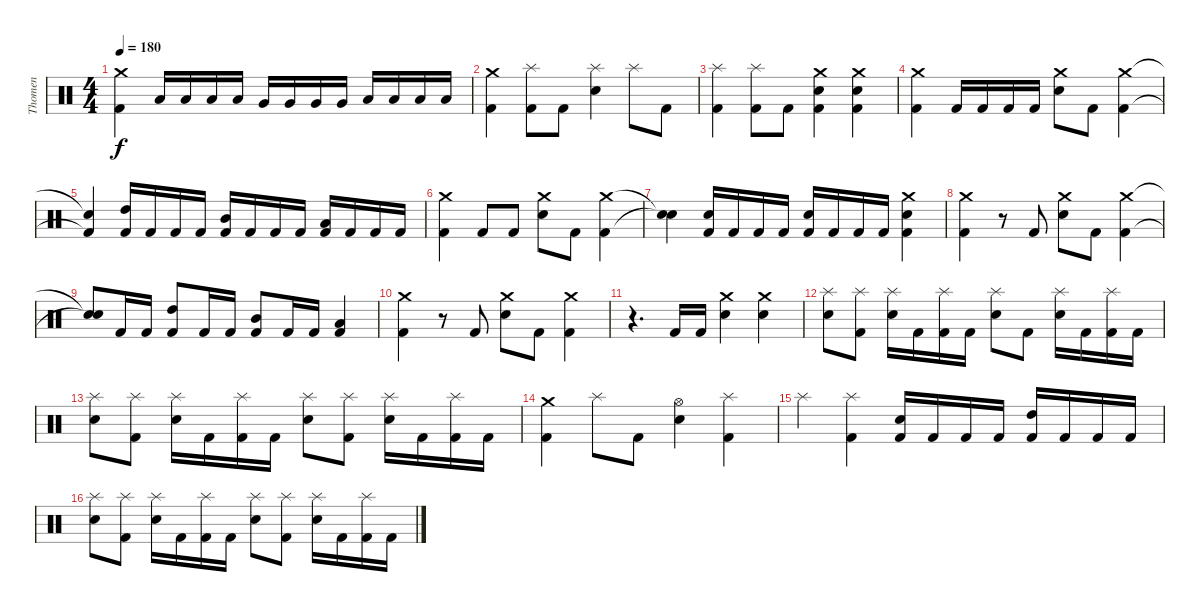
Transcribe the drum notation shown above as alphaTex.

\track ("Thomen" "Thomen") {instrument percussion}
\staff {score}
\articulation defaults
\ts (4 4)
\tempo 180
\clef neutral
\ks c
("Crash medium (hit)" "Kick (hit) 2").4{dy f} "Low Tom (hit)".16 "Low Tom (hit)".16 "Low Tom (hit)".16 "Low Tom (hit)".16 "Very Low Tom (hit)".16 "Very Low Tom (hit)".16 "Very Low Tom (hit)".16 "Very Low Tom (hit)".16 "Low Floor Tom (hit)".16 "Low Floor Tom (hit)".16 "Low Floor Tom (hit)".16 "Low Floor Tom (hit)".16 |
("Crash medium (hit)" "Kick (hit) 2").4 ("Splash (hit)" "Kick (hit) 2").8 "Kick (hit) 2".8 ("Electric Snare (hit)" "Splash (hit)").4 "Splash (hit)".8 "Kick (hit) 2".8 |
("Splash (hit)" "Kick (hit) 2").4 ("Splash (hit)" "Kick (hit) 2").8 "Kick (hit) 2".8 ("Crash medium (hit)" "Electric Snare (hit)" "Kick (hit) 2").4 ("Crash medium (hit)" "Electric Snare (hit)" "Kick (hit) 2").4 |
("Kick (hit) 2" "Crash medium (hit)").4 "Kick (hit) 2".16 "Kick (hit) 2".16 "Kick (hit) 2".16 "Kick (hit) 2".16 ("Crash medium (hit)" "Electric Snare (hit)").8 "Kick (hit) 2".8 ("Crash medium (hit)" "Kick (hit) 2").4 |
("Snare (hit)"{t} "Kick (hit) 2"{t}).4 ("High Tom (hit)" "Kick (hit) 2").16 "Kick (hit) 2".16 "Kick (hit) 2".16 "Kick (hit) 2".16 ("Mid Tom (hit)" "Kick (hit) 2").16 "Kick (hit) 2".16 "Kick (hit) 2".16 "Kick (hit) 2".16 ("Low Tom (hit)" "Kick (hit) 2").16 "Kick (hit) 2".16 "Kick (hit) 2".16 "Kick (hit) 2".16 |
("Kick (hit) 2" "Crash medium (hit)").4 "Kick (hit) 2".8 "Kick (hit) 2".8 ("Crash medium (hit)" "Electric Snare (hit)").8 "Kick (hit) 2".8 ("Crash medium (hit)" "Kick (hit) 2").4 |
("Snare (hit)"{t} "Snare (hit)"{t}).4 ("Kick (hit) 2" "Electric Snare (hit)").16 "Kick (hit) 2".16 "Kick (hit) 2".16 "Kick (hit) 2".16 ("Kick (hit) 2" "Electric Snare (hit)").16 "Kick (hit) 2".16 "Kick (hit) 2".16 "Kick (hit) 2".16 ("Crash medium (hit)" "Kick (hit) 2" "Electric Snare (hit)").4 |
("Kick (hit) 2" "Crash medium (hit)").4 r.8 "Kick (hit) 2".8 ("Crash medium (hit)" "Electric Snare (hit)").8 "Kick (hit) 2".8 ("Crash medium (hit)" "Kick (hit) 2").4 |
("Snare (hit)"{t} "Snare (hit)"{t}).8 "Kick (hit) 2".16 "Kick (hit) 2".16 ("Kick (hit) 2" "High Tom (hit)").8 "Kick (hit) 2".16 "Kick (hit) 2".16 ("Kick (hit) 2" "Mid Tom (hit)").8 "Kick (hit) 2".16 "Kick (hit) 2".16 ("Kick (hit) 2" "Low Tom (hit)").4 |
("Kick (hit) 2" "Crash medium (hit)").4 r.8 "Kick (hit) 2".8 ("Crash medium (hit)" "Electric Snare (hit)").8 "Kick (hit) 2".8 ("Crash medium (hit)" "Kick (hit) 2").4 |
r.4{d} "Kick (hit) 2".16 "Kick (hit) 2".16 ("Crash medium (hit)" "Electric Snare (hit)").4 ("Crash medium (hit)" "Electric Snare (hit)").4 |
("Splash (hit)" "Electric Snare (hit)").8 ("Splash (hit)" "Kick (hit) 2").8 ("Splash (hit)" "Electric Snare (hit)").16 "Kick (hit) 2".16 ("Splash (hit)" "Kick (hit) 2").16 "Kick (hit) 2".16 ("Splash (hit)" "Electric Snare (hit)").8 "Kick (hit) 2".8 ("Splash (hit)" "Electric Snare (hit)").16 "Kick (hit) 2".16 ("Splash (hit)" "Kick (hit) 2").16 "Kick (hit) 2".16 |
("Splash (hit)" "Electric Snare (hit)").8 ("Splash (hit)" "Kick (hit) 2").8 ("Splash (hit)" "Electric Snare (hit)").16 "Kick (hit) 2".16 ("Splash (hit)" "Kick (hit) 2").16 "Kick (hit) 2".16 ("Splash (hit)" "Electric Snare (hit)").8 ("Splash (hit)" "Kick (hit) 2").8 ("Splash (hit)" "Electric Snare (hit)").16 "Kick (hit) 2".16 ("Splash (hit)" "Kick (hit) 2").16 "Kick (hit) 2".16 |
("Crash medium (hit)" "Kick (hit) 2").4 "Splash (hit)".8 "Kick (hit) 2".8 ("Electric Snare (hit)" "Hi-Hat (open)").4 ("Splash (hit)" "Kick (hit) 2").4 |
"Splash (hit)".4 ("Splash (hit)" "Kick (hit) 2").4 ("Electric Snare (hit)" "Kick (hit) 2").16 "Kick (hit) 2".16 "Kick (hit) 2".16 "Kick (hit) 2".16 ("High Tom (hit)" "Kick (hit) 2").16 "Kick (hit) 2".16 "Kick (hit) 2".16 "Kick (hit) 2".16 |
("Splash (hit)" "Electric Snare (hit)").8 ("Splash (hit)" "Kick (hit) 2").8 ("Splash (hit)" "Electric Snare (hit)").16 "Kick (hit) 2".16 ("Splash (hit)" "Kick (hit) 2").16 "Kick (hit) 2".16 ("Splash (hit)" "Electric Snare (hit)").8 ("Splash (hit)" "Kick (hit) 2").8 ("Splash (hit)" "Electric Snare (hit)").16 "Kick (hit) 2".16 ("Splash (hit)" "Kick (hit) 2").16 "Kick (hit) 2".16
